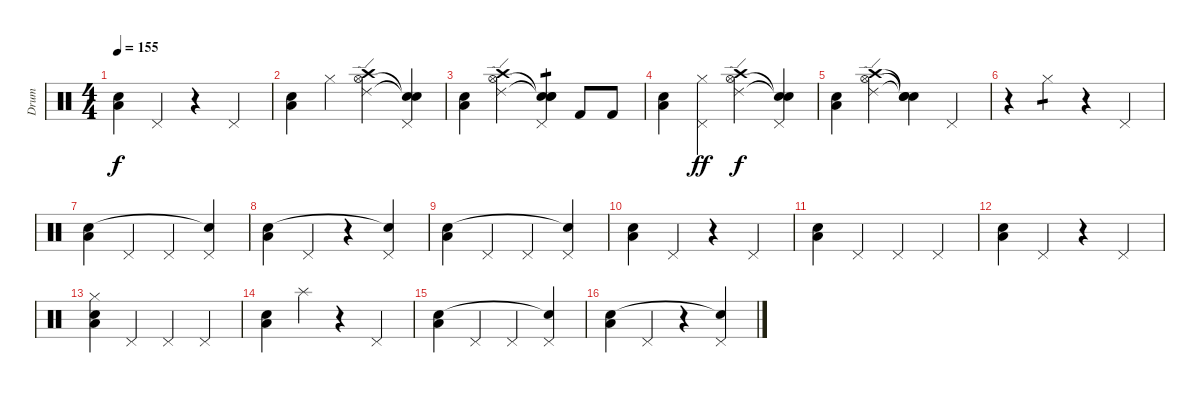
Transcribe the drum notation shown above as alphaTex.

\track ("Drum" "Drum") {instrument percussion}
\staff {score}
\articulation defaults
\ts (4 4)
\tempo 155
\clef neutral
\ks c
("Low Floor Tom (hit)" "Snare (hit) 2").4{dy f} "Pedal Hi-Hat (hit)".4 r.4 "Pedal Hi-Hat (hit)".4 |
("Low Floor Tom (hit)" "Snare (hit) 2").4 "Hi-Hat (closed)".4 ("Ride (edge) 2" "Hi-Hat (open)" "Crash high (hit)").4 ("Snare (hit)"{t} "Snare (hit)"{t} "Pedal Hi-Hat (hit)").4 |
("Low Floor Tom (hit)" "Snare (hit) 2").4 ("Ride (edge) 2" "Hi-Hat (open)" "Crash high (hit)").4 ("Snare (hit)"{t} "Snare (hit)"{t} "Pedal Hi-Hat (hit)" "Snare (hit)").4{tp 1} "Kick (hit) 2".8 "Kick (hit) 2".8 |
("Low Floor Tom (hit)" "Snare (hit) 2").4 ("Pedal Hi-Hat (hit)" "Hi-Hat (closed)").4{dy ff} ("Ride (edge) 2" "Hi-Hat (open)" "Crash high (hit)").4{dy f} ("Snare (hit)"{t} "Snare (hit)"{t} "Pedal Hi-Hat (hit)").4 |
("Low Floor Tom (hit)" "Snare (hit) 2").4 ("Ride (edge) 2" "Hi-Hat (open)" "Crash high (hit)").4 ("Snare (hit)"{t} "Snare (hit)"{t} "Snare (hit)"{t}).4 "Pedal Hi-Hat (hit)".4 |
r.4 "Hi-Hat (closed)".4{tp 1} r.4 "Pedal Hi-Hat (hit)".4 |
("Low Floor Tom (hit)" "Snare (hit) 2").4 "Pedal Hi-Hat (hit)".4 "Pedal Hi-Hat (hit)".4 ("Pedal Hi-Hat (hit)" "Snare (hit)"{t}).4 |
("Low Floor Tom (hit)" "Snare (hit) 2").4 "Pedal Hi-Hat (hit)".4 r.4 ("Pedal Hi-Hat (hit)" "Snare (hit)"{t}).4 |
("Low Floor Tom (hit)" "Snare (hit) 2").4 "Pedal Hi-Hat (hit)".4 "Pedal Hi-Hat (hit)".4 ("Pedal Hi-Hat (hit)" "Snare (hit)"{t}).4 |
("Low Floor Tom (hit)" "Snare (hit) 2").4 "Pedal Hi-Hat (hit)".4 r.4 "Pedal Hi-Hat (hit)".4 |
("Low Floor Tom (hit)" "Snare (hit) 2").4 "Pedal Hi-Hat (hit)".4 "Pedal Hi-Hat (hit)".4 "Pedal Hi-Hat (hit)".4 |
("Low Floor Tom (hit)" "Snare (hit) 2").4 "Pedal Hi-Hat (hit)".4 r.4 "Pedal Hi-Hat (hit)".4 |
("Hi-Hat (closed)" "Low Floor Tom (hit)" "Snare (hit) 2").4 "Pedal Hi-Hat (hit)".4 "Pedal Hi-Hat (hit)".4 "Pedal Hi-Hat (hit)".4 |
("Low Floor Tom (hit)" "Snare (hit) 2").4 "Splash (hit)".4 r.4 "Pedal Hi-Hat (hit)".4 |
("Low Floor Tom (hit)" "Snare (hit) 2").4 "Pedal Hi-Hat (hit)".4 "Pedal Hi-Hat (hit)".4 ("Pedal Hi-Hat (hit)" "Snare (hit)"{t}).4 |
("Low Floor Tom (hit)" "Snare (hit) 2").4 "Pedal Hi-Hat (hit)".4 r.4 ("Pedal Hi-Hat (hit)" "Snare (hit)"{t}).4
